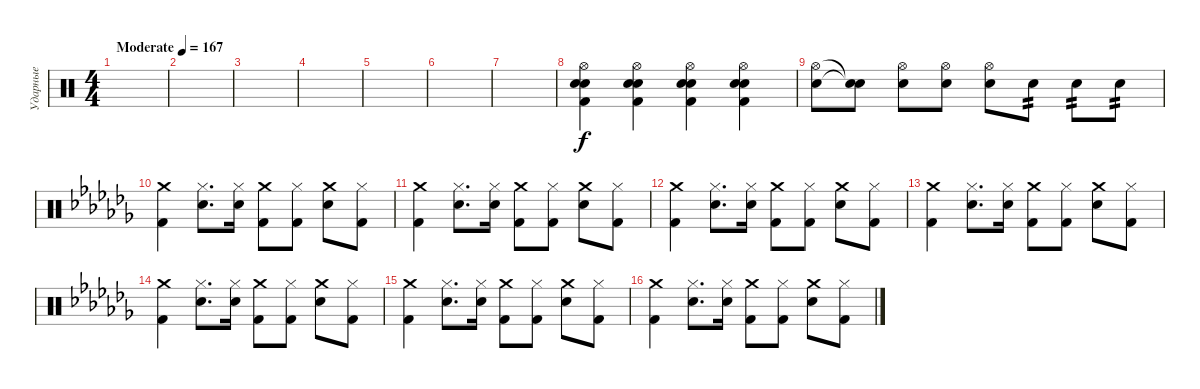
\track ("Ударные" "Ударные") {instrument percussion}
\staff {score}
\articulation defaults
\ts (4 4)
\tempo (167 "Moderate")
\clef neutral
\ks c
|
|
|
|
|
|
|
("Hi-Hat (open)" "Snare (hit) 2" "Snare (hit) 2" "Kick (hit) 2").4 ("Hi-Hat (open)" "Snare (hit) 2" "Snare (hit) 2" "Kick (hit) 2").4 ("Hi-Hat (open)" "Snare (hit) 2" "Snare (hit) 2" "Kick (hit) 2").4 ("Hi-Hat (open)" "Snare (hit) 2" "Snare (hit) 2" "Kick (hit) 2").4 |
("Hi-Hat (open)" "Electric Snare (hit)").8 ("Snare (hit)"{t} "Snare (hit)"{t}).8 ("Hi-Hat (open)" "Electric Snare (hit)").8 ("Hi-Hat (open)" "Electric Snare (hit)").8 ("Hi-Hat (open)" "Electric Snare (hit)").8 "Electric Snare (hit)".8{tp 2} "Electric Snare (hit)".8{tp 2} "Electric Snare (hit)".8{tp 2} |
\ks abminor
("Crash medium (hit)" "Kick (hit) 2").4 ("Hi-Hat (closed)" "Electric Snare (hit)").8{d} ("Hi-Hat (closed)" "Electric Snare (hit)").16 ("Crash medium (hit)" "Kick (hit) 2").8 ("Hi-Hat (closed)" "Kick (hit) 2").8 ("Crash medium (hit)" "Electric Snare (hit)").8 ("Hi-Hat (closed)" "Kick (hit) 2").8 |
("Crash medium (hit)" "Kick (hit) 2").4 ("Hi-Hat (closed)" "Electric Snare (hit)").8{d} ("Hi-Hat (closed)" "Electric Snare (hit)").16 ("Crash medium (hit)" "Kick (hit) 2").8 ("Hi-Hat (closed)" "Kick (hit) 2").8 ("Crash medium (hit)" "Electric Snare (hit)").8 ("Hi-Hat (closed)" "Kick (hit) 2").8 |
("Crash medium (hit)" "Kick (hit) 2").4 ("Hi-Hat (closed)" "Electric Snare (hit)").8{d} ("Hi-Hat (closed)" "Electric Snare (hit)").16 ("Crash medium (hit)" "Kick (hit) 2").8 ("Hi-Hat (closed)" "Kick (hit) 2").8 ("Crash medium (hit)" "Electric Snare (hit)").8 ("Hi-Hat (closed)" "Kick (hit) 2").8 |
("Crash medium (hit)" "Kick (hit) 2").4 ("Hi-Hat (closed)" "Electric Snare (hit)").8{d} ("Hi-Hat (closed)" "Electric Snare (hit)").16 ("Crash medium (hit)" "Kick (hit) 2").8 ("Hi-Hat (closed)" "Kick (hit) 2").8 ("Crash medium (hit)" "Electric Snare (hit)").8 ("Hi-Hat (closed)" "Kick (hit) 2").8 |
("Crash medium (hit)" "Kick (hit) 2").4 ("Hi-Hat (closed)" "Electric Snare (hit)").8{d} ("Hi-Hat (closed)" "Electric Snare (hit)").16 ("Crash medium (hit)" "Kick (hit) 2").8 ("Hi-Hat (closed)" "Kick (hit) 2").8 ("Crash medium (hit)" "Electric Snare (hit)").8 ("Hi-Hat (closed)" "Kick (hit) 2").8 |
("Crash medium (hit)" "Kick (hit) 2").4 ("Hi-Hat (closed)" "Electric Snare (hit)").8{d} ("Hi-Hat (closed)" "Electric Snare (hit)").16 ("Crash medium (hit)" "Kick (hit) 2").8 ("Hi-Hat (closed)" "Kick (hit) 2").8 ("Crash medium (hit)" "Electric Snare (hit)").8 ("Hi-Hat (closed)" "Kick (hit) 2").8 |
("Crash medium (hit)" "Kick (hit) 2").4 ("Hi-Hat (closed)" "Electric Snare (hit)").8{d} ("Hi-Hat (closed)" "Electric Snare (hit)").16 ("Crash medium (hit)" "Kick (hit) 2").8 ("Hi-Hat (closed)" "Kick (hit) 2").8 ("Crash medium (hit)" "Electric Snare (hit)").8 ("Hi-Hat (closed)" "Kick (hit) 2").8
